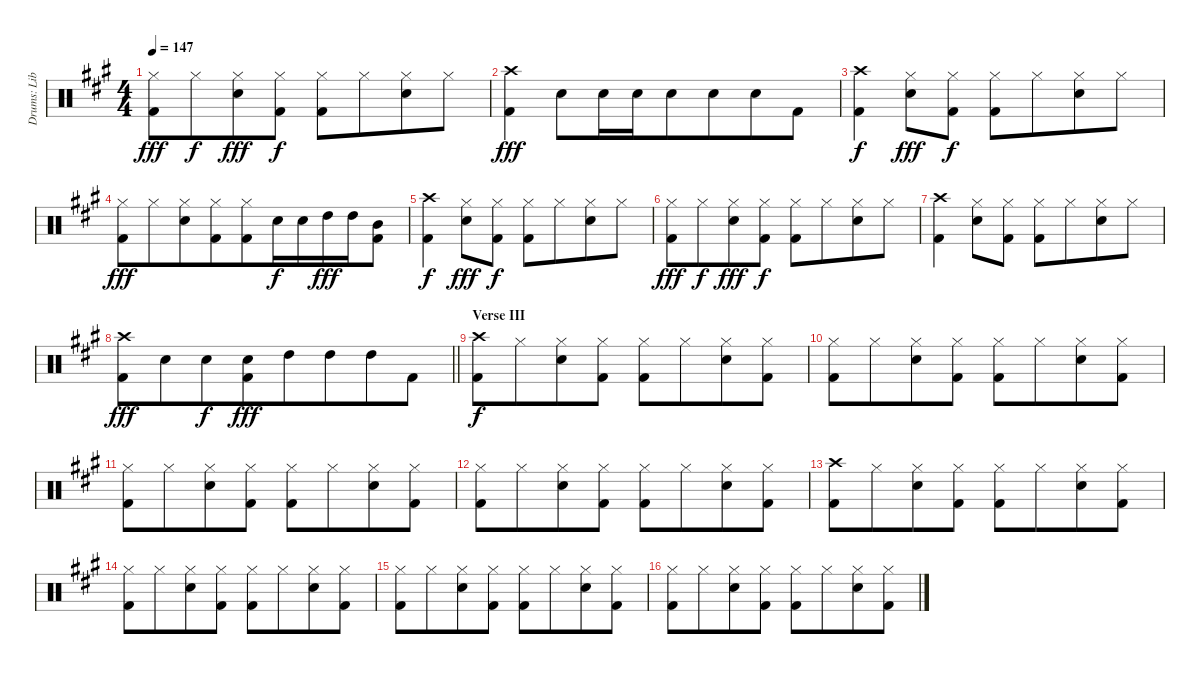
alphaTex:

\track ("Drums: Liberty" "Drums: Lib") {instrument percussion}
\staff {score}
\articulation defaults
\ts (4 4)
\tempo 147
\clef neutral
\ks a
("Hi-Hat (closed)" "Kick (hit) 2").8{dy fff} "Hi-Hat (closed)".8{dy f beam merge} ("Hi-Hat (closed)" "Electric Snare (hit)").8{dy fff} ("Hi-Hat (closed)" "Kick (hit) 2").8{dy f} ("Hi-Hat (closed)" "Kick (hit) 2").8 "Hi-Hat (closed)".8{beam merge} ("Hi-Hat (closed)" "Electric Snare (hit)").8 "Hi-Hat (closed)".8 |
("Crash high (hit)" "Kick (hit) 2").4{dy fff beam merge} "Electric Snare (hit)".8{beam merge} "Electric Snare (hit)".16{beam merge} "Electric Snare (hit)".16{beam merge} "Electric Snare (hit)".8{beam merge} "Electric Snare (hit)".8{beam merge} "Electric Snare (hit)".8 "Kick (hit) 2".8 |
("Crash high (hit)" "Kick (hit) 2").4{dy f} ("Hi-Hat (closed)" "Electric Snare (hit)").8{dy fff} ("Hi-Hat (closed)" "Kick (hit) 2").8{dy f} ("Hi-Hat (closed)" "Kick (hit) 2").8 "Hi-Hat (closed)".8{beam merge} ("Hi-Hat (closed)" "Electric Snare (hit)").8 "Hi-Hat (closed)".8 |
("Hi-Hat (closed)" "Kick (hit) 2").8{dy fff} "Hi-Hat (closed)".8{beam merge} ("Hi-Hat (closed)" "Electric Snare (hit)").8 ("Hi-Hat (closed)" "Kick (hit) 2").8{beam merge} ("Hi-Hat (closed)" "Kick (hit) 2").8{beam merge} "Electric Snare (hit)".16{dy f beam merge} "Electric Snare (hit)".16{beam merge} "High Tom (hit)".16{dy fff beam merge} "High Tom (hit)".16{beam merge} ("Mid Tom (hit)" "Kick (hit) 2").8 |
("Crash high (hit)" "Kick (hit) 2").4{dy f} ("Hi-Hat (closed)" "Electric Snare (hit)").8{dy fff} ("Hi-Hat (closed)" "Kick (hit) 2").8{dy f} ("Hi-Hat (closed)" "Kick (hit) 2").8 "Hi-Hat (closed)".8{beam merge} ("Hi-Hat (closed)" "Electric Snare (hit)").8 "Hi-Hat (closed)".8 |
("Hi-Hat (closed)" "Kick (hit) 2").8{dy fff} "Hi-Hat (closed)".8{dy f beam merge} ("Hi-Hat (closed)" "Electric Snare (hit)").8{dy fff} ("Hi-Hat (closed)" "Kick (hit) 2").8{dy f} ("Hi-Hat (closed)" "Kick (hit) 2").8 "Hi-Hat (closed)".8{beam merge} ("Hi-Hat (closed)" "Electric Snare (hit)").8 "Hi-Hat (closed)".8 |
("Crash high (hit)" "Kick (hit) 2").4 ("Hi-Hat (closed)" "Electric Snare (hit)").8 ("Hi-Hat (closed)" "Kick (hit) 2").8 ("Hi-Hat (closed)" "Kick (hit) 2").8 "Hi-Hat (closed)".8{beam merge} ("Hi-Hat (closed)" "Electric Snare (hit)").8 "Hi-Hat (closed)".8 |
\barLineRight lightlight
("Crash high (hit)" "Kick (hit) 2").8{dy fff} "Electric Snare (hit)".8{beam merge} "Electric Snare (hit)".8{dy f} ("Electric Snare (hit)" "Kick (hit) 2").8{dy fff beam merge} "High Tom (hit)".8{beam merge} "High Tom (hit)".8{beam merge} "High Tom (hit)".8{beam merge} "Kick (hit) 2".8 |
\section ("" "Verse III")
("Crash high (hit)" "Kick (hit) 2").8{dy f} "Hi-Hat (closed)".8{beam merge} ("Hi-Hat (closed)" "Electric Snare (hit)").8 ("Hi-Hat (closed)" "Kick (hit) 2").8 ("Hi-Hat (closed)" "Kick (hit) 2").8 "Hi-Hat (closed)".8{beam merge} ("Hi-Hat (closed)" "Electric Snare (hit)").8 ("Hi-Hat (closed)" "Kick (hit) 2").8 |
("Hi-Hat (closed)" "Kick (hit) 2").8 "Hi-Hat (closed)".8{beam merge} ("Hi-Hat (closed)" "Electric Snare (hit)").8 ("Hi-Hat (closed)" "Kick (hit) 2").8 ("Hi-Hat (closed)" "Kick (hit) 2").8 "Hi-Hat (closed)".8{beam merge} ("Hi-Hat (closed)" "Electric Snare (hit)").8 ("Hi-Hat (closed)" "Kick (hit) 2").8 |
("Hi-Hat (closed)" "Kick (hit) 2").8 "Hi-Hat (closed)".8{beam merge} ("Hi-Hat (closed)" "Electric Snare (hit)").8 ("Hi-Hat (closed)" "Kick (hit) 2").8 ("Hi-Hat (closed)" "Kick (hit) 2").8 "Hi-Hat (closed)".8{beam merge} ("Hi-Hat (closed)" "Electric Snare (hit)").8 ("Hi-Hat (closed)" "Kick (hit) 2").8 |
("Hi-Hat (closed)" "Kick (hit) 2").8 "Hi-Hat (closed)".8{beam merge} ("Hi-Hat (closed)" "Electric Snare (hit)").8 ("Hi-Hat (closed)" "Kick (hit) 2").8 ("Hi-Hat (closed)" "Kick (hit) 2").8 "Hi-Hat (closed)".8{beam merge} ("Hi-Hat (closed)" "Electric Snare (hit)").8 ("Hi-Hat (closed)" "Kick (hit) 2").8 |
("Crash high (hit)" "Kick (hit) 2").8 "Hi-Hat (closed)".8{beam merge} ("Hi-Hat (closed)" "Electric Snare (hit)").8 ("Hi-Hat (closed)" "Kick (hit) 2").8 ("Hi-Hat (closed)" "Kick (hit) 2").8 "Hi-Hat (closed)".8{beam merge} ("Hi-Hat (closed)" "Electric Snare (hit)").8 ("Hi-Hat (closed)" "Kick (hit) 2").8 |
("Hi-Hat (closed)" "Kick (hit) 2").8 "Hi-Hat (closed)".8{beam merge} ("Hi-Hat (closed)" "Electric Snare (hit)").8 ("Hi-Hat (closed)" "Kick (hit) 2").8 ("Hi-Hat (closed)" "Kick (hit) 2").8 "Hi-Hat (closed)".8{beam merge} ("Hi-Hat (closed)" "Electric Snare (hit)").8 ("Hi-Hat (closed)" "Kick (hit) 2").8 |
("Hi-Hat (closed)" "Kick (hit) 2").8 "Hi-Hat (closed)".8{beam merge} ("Hi-Hat (closed)" "Electric Snare (hit)").8 ("Hi-Hat (closed)" "Kick (hit) 2").8 ("Hi-Hat (closed)" "Kick (hit) 2").8 "Hi-Hat (closed)".8{beam merge} ("Hi-Hat (closed)" "Electric Snare (hit)").8 ("Hi-Hat (closed)" "Kick (hit) 2").8 |
("Hi-Hat (closed)" "Kick (hit) 2").8 "Hi-Hat (closed)".8{beam merge} ("Hi-Hat (closed)" "Electric Snare (hit)").8 ("Hi-Hat (closed)" "Kick (hit) 2").8 ("Hi-Hat (closed)" "Kick (hit) 2").8 "Hi-Hat (closed)".8{beam merge} ("Hi-Hat (closed)" "Electric Snare (hit)").8 ("Hi-Hat (closed)" "Kick (hit) 2").8
